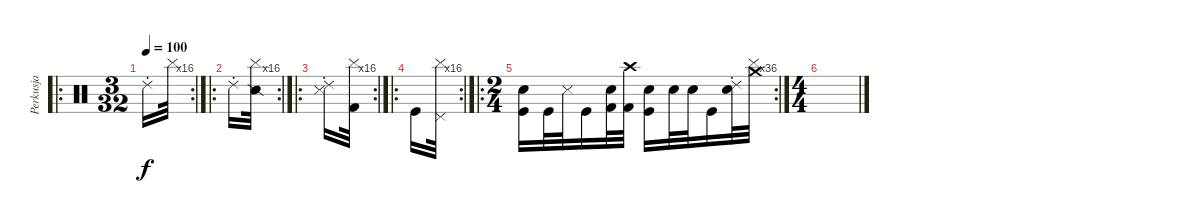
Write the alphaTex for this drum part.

\track ("Perkusja" "Perkusja") {instrument percussion}
\staff {score}
\articulation defaults
\ro
\rc 16
\ts (3 32)
\tempo 100
\clef neutral
\ks c "Ride (choke) 2".16{dy f} "Cymbal (hit)".32
|
\ro
\rc 16 "Ride (choke) 2".16
("Snare (side stick) 2" "Cymbal (hit)").32 |
\ro
\rc 16
("Metronome (hit)" "Ride (choke) 2").16 ("Kick (hit) 2" "Cymbal (hit)").32 |
\ro
\rc 16 "Kick (hit)".16
("Cymbal (hit)" "Pedal Hi-Hat (hit)").32 |
\ro
\rc 36
\ts (2 4)
("Hand Clap (hit)" "Kick (hit)").16 "Kick (hit)".32 "Metronome (hit)".32 "Kick (hit)".16 ("Hand Clap (hit)" "Kick (hit) 2").32 ("Crash high (hit)" "Kick (hit) 2").32 ("Hand Clap (hit)" "Kick (hit)").16 "Electric Snare (hit)".32 "Electric Snare (hit)".32 "Kick (hit)".16 ("Hand Clap (hit)" "Ride (choke) 2").32 ("Crash medium (hit)" "Cymbal (hit)").32 |
\ts (4 4)
